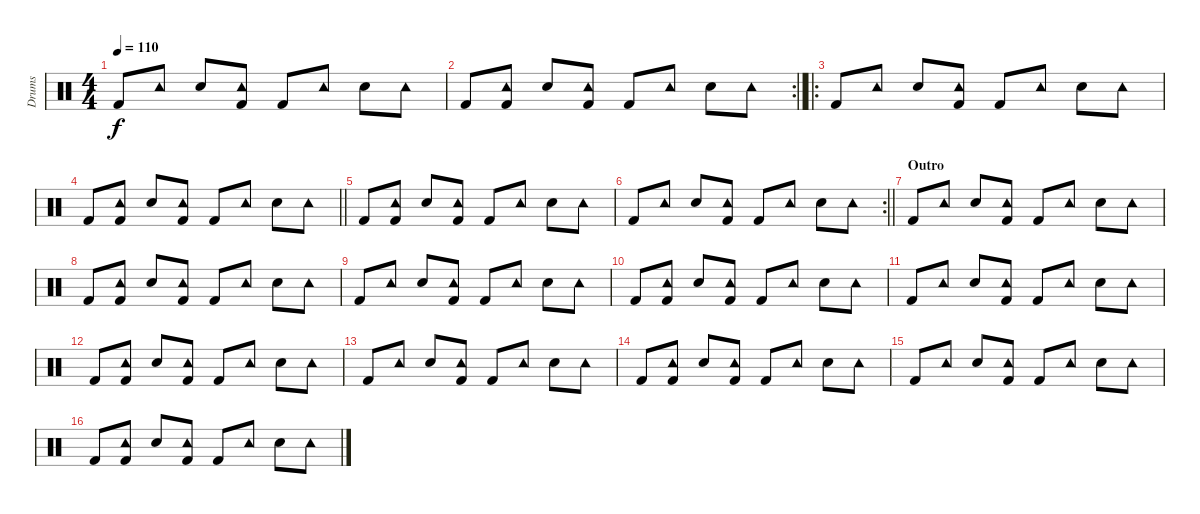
\track ("Drums" "Drums") {instrument percussion}
\staff {score}
\articulation defaults
\ts (4 4)
\tempo 110
\clef neutral
\ks c "Kick (hit) 2".8{dy f} "Tambourine (hit)".8 "Snare (hit) 2".8
("Tambourine (hit)" "Kick (hit) 2").8 "Kick (hit) 2".8 "Tambourine (hit)".8 "Snare (hit) 2".8 "Tambourine (hit)".8 |
\rc 2
\barLineRight lightlight "Kick (hit) 2".8
("Tambourine (hit)" "Kick (hit) 2").8 "Snare (hit) 2".8 ("Tambourine (hit)" "Kick (hit) 2").8 "Kick (hit) 2".8 "Tambourine (hit)".8 "Snare (hit) 2".8 "Tambourine (hit)".8 |
\ro "Kick (hit) 2".8 "Tambourine (hit)".8 "Snare (hit) 2".8
("Tambourine (hit)" "Kick (hit) 2").8 "Kick (hit) 2".8 "Tambourine (hit)".8 "Snare (hit) 2".8 "Tambourine (hit)".8 |
\barLineRight lightlight "Kick (hit) 2".8
("Tambourine (hit)" "Kick (hit) 2").8 "Snare (hit) 2".8 ("Tambourine (hit)" "Kick (hit) 2").8 "Kick (hit) 2".8 "Tambourine (hit)".8 "Snare (hit) 2".8 "Tambourine (hit)".8 |
"Kick (hit) 2".8 ("Tambourine (hit)" "Kick (hit) 2").8 "Snare (hit) 2".8 ("Tambourine (hit)" "Kick (hit) 2").8 "Kick (hit) 2".8 "Tambourine (hit)".8 "Snare (hit) 2".8 "Tambourine (hit)".8 |
\rc 2
\barLineRight lightlight "Kick (hit) 2".8 "Tambourine (hit)".8 "Snare (hit) 2".8
("Tambourine (hit)" "Kick (hit) 2").8 "Kick (hit) 2".8 "Tambourine (hit)".8 "Snare (hit) 2".8 "Tambourine (hit)".8 |
\section ("" "Outro")
"Kick (hit) 2".8 "Tambourine (hit)".8 "Snare (hit) 2".8 ("Tambourine (hit)" "Kick (hit) 2").8 "Kick (hit) 2".8 "Tambourine (hit)".8 "Snare (hit) 2".8 "Tambourine (hit)".8 |
"Kick (hit) 2".8 ("Tambourine (hit)" "Kick (hit) 2").8 "Snare (hit) 2".8 ("Tambourine (hit)" "Kick (hit) 2").8 "Kick (hit) 2".8 "Tambourine (hit)".8 "Snare (hit) 2".8 "Tambourine (hit)".8 |
"Kick (hit) 2".8 "Tambourine (hit)".8 "Snare (hit) 2".8 ("Tambourine (hit)" "Kick (hit) 2").8 "Kick (hit) 2".8 "Tambourine (hit)".8 "Snare (hit) 2".8 "Tambourine (hit)".8 |
"Kick (hit) 2".8 ("Tambourine (hit)" "Kick (hit) 2").8 "Snare (hit) 2".8 ("Tambourine (hit)" "Kick (hit) 2").8 "Kick (hit) 2".8 "Tambourine (hit)".8 "Snare (hit) 2".8 "Tambourine (hit)".8 |
"Kick (hit) 2".8 "Tambourine (hit)".8 "Snare (hit) 2".8 ("Tambourine (hit)" "Kick (hit) 2").8 "Kick (hit) 2".8 "Tambourine (hit)".8 "Snare (hit) 2".8 "Tambourine (hit)".8 |
"Kick (hit) 2".8 ("Tambourine (hit)" "Kick (hit) 2").8 "Snare (hit) 2".8 ("Tambourine (hit)" "Kick (hit) 2").8 "Kick (hit) 2".8 "Tambourine (hit)".8 "Snare (hit) 2".8 "Tambourine (hit)".8 |
"Kick (hit) 2".8 "Tambourine (hit)".8 "Snare (hit) 2".8 ("Tambourine (hit)" "Kick (hit) 2").8 "Kick (hit) 2".8 "Tambourine (hit)".8 "Snare (hit) 2".8 "Tambourine (hit)".8 |
"Kick (hit) 2".8 ("Tambourine (hit)" "Kick (hit) 2").8 "Snare (hit) 2".8 ("Tambourine (hit)" "Kick (hit) 2").8 "Kick (hit) 2".8 "Tambourine (hit)".8 "Snare (hit) 2".8 "Tambourine (hit)".8 |
"Kick (hit) 2".8 "Tambourine (hit)".8 "Snare (hit) 2".8 ("Tambourine (hit)" "Kick (hit) 2").8 "Kick (hit) 2".8 "Tambourine (hit)".8 "Snare (hit) 2".8 "Tambourine (hit)".8 |
"Kick (hit) 2".8 ("Tambourine (hit)" "Kick (hit) 2").8 "Snare (hit) 2".8 ("Tambourine (hit)" "Kick (hit) 2").8 "Kick (hit) 2".8 "Tambourine (hit)".8 "Snare (hit) 2".8 "Tambourine (hit)".8
